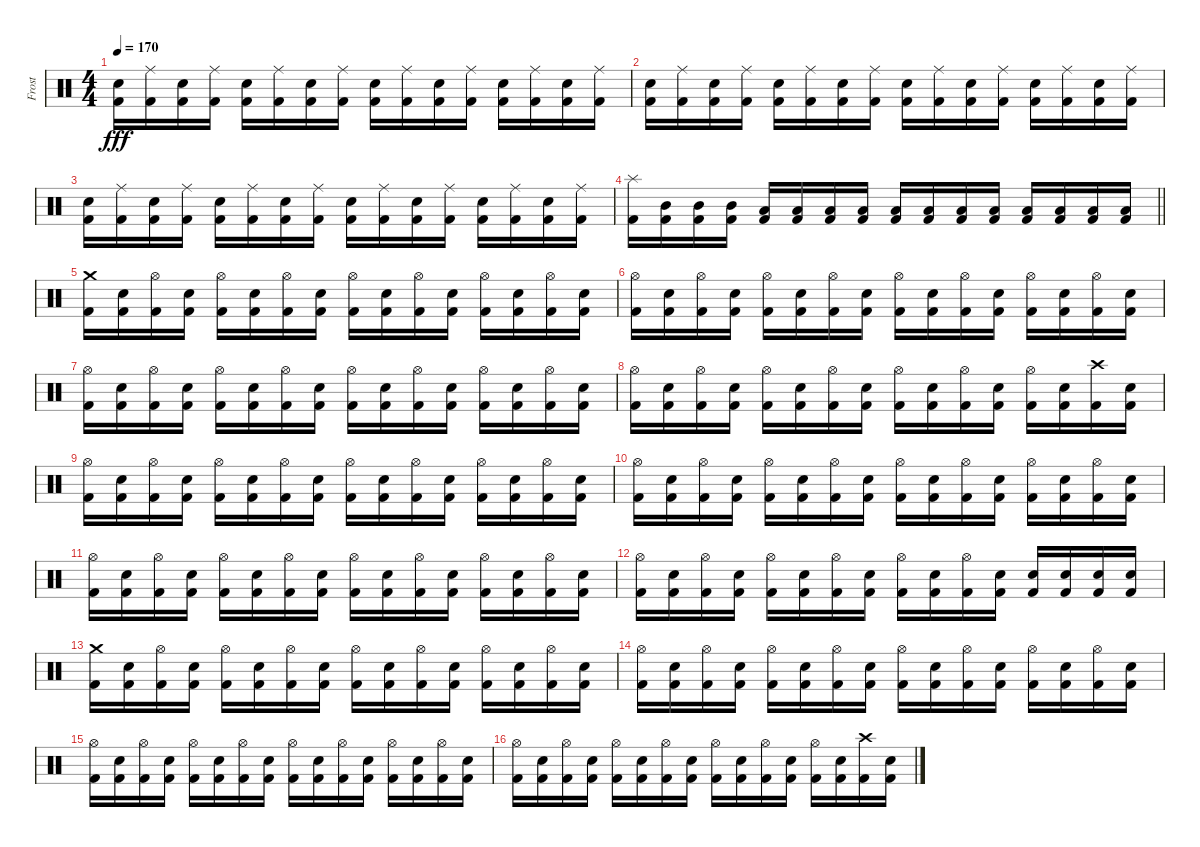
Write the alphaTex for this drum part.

\track ("Frost" "Frost") {instrument percussion}
\staff {score}
\articulation defaults
\ts (4 4)
\tempo 170
\clef neutral
\ks c
("Electric Snare (hit)" "Kick (hit) 2").16{dy fff} ("Ride (middle)" "Kick (hit) 2").16 ("Electric Snare (hit)" "Kick (hit) 2").16 ("Ride (middle)" "Kick (hit) 2").16 ("Electric Snare (hit)" "Kick (hit) 2").16 ("Ride (middle)" "Kick (hit) 2").16 ("Electric Snare (hit)" "Kick (hit) 2").16 ("Ride (middle)" "Kick (hit) 2").16 ("Electric Snare (hit)" "Kick (hit) 2").16 ("Ride (middle)" "Kick (hit) 2").16 ("Electric Snare (hit)" "Kick (hit) 2").16 ("Ride (middle)" "Kick (hit) 2").16 ("Electric Snare (hit)" "Kick (hit) 2").16 ("Ride (middle)" "Kick (hit) 2").16 ("Electric Snare (hit)" "Kick (hit) 2").16 ("Ride (middle)" "Kick (hit) 2").16 |
("Electric Snare (hit)" "Kick (hit) 2").16 ("Ride (middle)" "Kick (hit) 2").16 ("Electric Snare (hit)" "Kick (hit) 2").16 ("Ride (middle)" "Kick (hit) 2").16 ("Electric Snare (hit)" "Kick (hit) 2").16 ("Ride (middle)" "Kick (hit) 2").16 ("Electric Snare (hit)" "Kick (hit) 2").16 ("Ride (middle)" "Kick (hit) 2").16 ("Electric Snare (hit)" "Kick (hit) 2").16 ("Ride (middle)" "Kick (hit) 2").16 ("Electric Snare (hit)" "Kick (hit) 2").16 ("Ride (middle)" "Kick (hit) 2").16 ("Electric Snare (hit)" "Kick (hit) 2").16 ("Ride (middle)" "Kick (hit) 2").16 ("Electric Snare (hit)" "Kick (hit) 2").16 ("Ride (middle)" "Kick (hit) 2").16 |
("Electric Snare (hit)" "Kick (hit) 2").16 ("Ride (middle)" "Kick (hit) 2").16 ("Electric Snare (hit)" "Kick (hit) 2").16 ("Ride (middle)" "Kick (hit) 2").16 ("Electric Snare (hit)" "Kick (hit) 2").16 ("Ride (middle)" "Kick (hit) 2").16 ("Electric Snare (hit)" "Kick (hit) 2").16 ("Ride (middle)" "Kick (hit) 2").16 ("Electric Snare (hit)" "Kick (hit) 2").16 ("Ride (middle)" "Kick (hit) 2").16 ("Electric Snare (hit)" "Kick (hit) 2").16 ("Ride (middle)" "Kick (hit) 2").16 ("Electric Snare (hit)" "Kick (hit) 2").16 ("Ride (middle)" "Kick (hit) 2").16 ("Electric Snare (hit)" "Kick (hit) 2").16 ("Ride (middle)" "Kick (hit) 2").16 |
\barLineRight lightlight
("Splash (hit)" "Kick (hit) 2").16 ("Mid Tom (hit)" "Kick (hit) 2").16 ("Mid Tom (hit)" "Kick (hit) 2").16 ("Mid Tom (hit)" "Kick (hit) 2").16 ("Low Tom (hit)" "Kick (hit) 2").16 ("Low Tom (hit)" "Kick (hit) 2").16 ("Low Tom (hit)" "Kick (hit) 2").16 ("Low Tom (hit)" "Kick (hit) 2").16 ("Low Floor Tom (hit)" "Kick (hit) 2").16 ("Low Floor Tom (hit)" "Kick (hit) 2").16 ("Low Floor Tom (hit)" "Kick (hit) 2").16 ("Low Floor Tom (hit)" "Kick (hit) 2").16 ("Low Floor Tom (hit)" "Kick (hit) 2").16 ("Low Floor Tom (hit)" "Kick (hit) 2").16 ("Low Floor Tom (hit)" "Kick (hit) 2").16 ("Low Floor Tom (hit)" "Kick (hit) 2").16 |
("Crash medium (hit)" "Kick (hit) 2").16 ("Electric Snare (hit)" "Kick (hit) 2").16 ("Hi-Hat (open)" "Kick (hit) 2").16 ("Electric Snare (hit)" "Kick (hit) 2").16 ("Hi-Hat (open)" "Kick (hit) 2").16 ("Electric Snare (hit)" "Kick (hit) 2").16 ("Hi-Hat (open)" "Kick (hit) 2").16 ("Electric Snare (hit)" "Kick (hit) 2").16 ("Hi-Hat (open)" "Kick (hit) 2").16 ("Electric Snare (hit)" "Kick (hit) 2").16 ("Hi-Hat (open)" "Kick (hit) 2").16 ("Electric Snare (hit)" "Kick (hit) 2").16 ("Hi-Hat (open)" "Kick (hit) 2").16 ("Electric Snare (hit)" "Kick (hit) 2").16 ("Hi-Hat (open)" "Kick (hit) 2").16 ("Electric Snare (hit)" "Kick (hit) 2").16 |
("Hi-Hat (open)" "Kick (hit) 2").16 ("Electric Snare (hit)" "Kick (hit) 2").16 ("Hi-Hat (open)" "Kick (hit) 2").16 ("Electric Snare (hit)" "Kick (hit) 2").16 ("Hi-Hat (open)" "Kick (hit) 2").16 ("Electric Snare (hit)" "Kick (hit) 2").16 ("Hi-Hat (open)" "Kick (hit) 2").16 ("Electric Snare (hit)" "Kick (hit) 2").16 ("Hi-Hat (open)" "Kick (hit) 2").16 ("Electric Snare (hit)" "Kick (hit) 2").16 ("Hi-Hat (open)" "Kick (hit) 2").16 ("Electric Snare (hit)" "Kick (hit) 2").16 ("Hi-Hat (open)" "Kick (hit) 2").16 ("Electric Snare (hit)" "Kick (hit) 2").16 ("Hi-Hat (open)" "Kick (hit) 2").16 ("Electric Snare (hit)" "Kick (hit) 2").16 |
("Hi-Hat (open)" "Kick (hit) 2").16 ("Electric Snare (hit)" "Kick (hit) 2").16 ("Hi-Hat (open)" "Kick (hit) 2").16 ("Electric Snare (hit)" "Kick (hit) 2").16 ("Hi-Hat (open)" "Kick (hit) 2").16 ("Electric Snare (hit)" "Kick (hit) 2").16 ("Hi-Hat (open)" "Kick (hit) 2").16 ("Electric Snare (hit)" "Kick (hit) 2").16 ("Hi-Hat (open)" "Kick (hit) 2").16 ("Electric Snare (hit)" "Kick (hit) 2").16 ("Hi-Hat (open)" "Kick (hit) 2").16 ("Electric Snare (hit)" "Kick (hit) 2").16 ("Hi-Hat (open)" "Kick (hit) 2").16 ("Electric Snare (hit)" "Kick (hit) 2").16 ("Hi-Hat (open)" "Kick (hit) 2").16 ("Electric Snare (hit)" "Kick (hit) 2").16 |
("Hi-Hat (open)" "Kick (hit) 2").16 ("Electric Snare (hit)" "Kick (hit) 2").16 ("Hi-Hat (open)" "Kick (hit) 2").16 ("Electric Snare (hit)" "Kick (hit) 2").16 ("Hi-Hat (open)" "Kick (hit) 2").16 ("Electric Snare (hit)" "Kick (hit) 2").16 ("Hi-Hat (open)" "Kick (hit) 2").16 ("Electric Snare (hit)" "Kick (hit) 2").16 ("Hi-Hat (open)" "Kick (hit) 2").16 ("Electric Snare (hit)" "Kick (hit) 2").16 ("Hi-Hat (open)" "Kick (hit) 2").16 ("Electric Snare (hit)" "Kick (hit) 2").16 ("Hi-Hat (open)" "Kick (hit) 2").16 ("Electric Snare (hit)" "Kick (hit) 2").16 ("Crash high (hit)" "Kick (hit) 2").16 ("Electric Snare (hit)" "Kick (hit) 2").16 |
("Hi-Hat (open)" "Kick (hit) 2").16 ("Electric Snare (hit)" "Kick (hit) 2").16 ("Hi-Hat (open)" "Kick (hit) 2").16 ("Electric Snare (hit)" "Kick (hit) 2").16 ("Hi-Hat (open)" "Kick (hit) 2").16 ("Electric Snare (hit)" "Kick (hit) 2").16 ("Hi-Hat (open)" "Kick (hit) 2").16 ("Electric Snare (hit)" "Kick (hit) 2").16 ("Hi-Hat (open)" "Kick (hit) 2").16 ("Electric Snare (hit)" "Kick (hit) 2").16 ("Hi-Hat (open)" "Kick (hit) 2").16 ("Electric Snare (hit)" "Kick (hit) 2").16 ("Hi-Hat (open)" "Kick (hit) 2").16 ("Electric Snare (hit)" "Kick (hit) 2").16 ("Hi-Hat (open)" "Kick (hit) 2").16 ("Electric Snare (hit)" "Kick (hit) 2").16 |
("Hi-Hat (open)" "Kick (hit) 2").16 ("Electric Snare (hit)" "Kick (hit) 2").16 ("Hi-Hat (open)" "Kick (hit) 2").16 ("Electric Snare (hit)" "Kick (hit) 2").16 ("Hi-Hat (open)" "Kick (hit) 2").16 ("Electric Snare (hit)" "Kick (hit) 2").16 ("Hi-Hat (open)" "Kick (hit) 2").16 ("Electric Snare (hit)" "Kick (hit) 2").16 ("Hi-Hat (open)" "Kick (hit) 2").16 ("Electric Snare (hit)" "Kick (hit) 2").16 ("Hi-Hat (open)" "Kick (hit) 2").16 ("Electric Snare (hit)" "Kick (hit) 2").16 ("Hi-Hat (open)" "Kick (hit) 2").16 ("Electric Snare (hit)" "Kick (hit) 2").16 ("Hi-Hat (open)" "Kick (hit) 2").16 ("Electric Snare (hit)" "Kick (hit) 2").16 |
("Hi-Hat (open)" "Kick (hit) 2").16 ("Electric Snare (hit)" "Kick (hit) 2").16 ("Hi-Hat (open)" "Kick (hit) 2").16 ("Electric Snare (hit)" "Kick (hit) 2").16 ("Hi-Hat (open)" "Kick (hit) 2").16 ("Electric Snare (hit)" "Kick (hit) 2").16 ("Hi-Hat (open)" "Kick (hit) 2").16 ("Electric Snare (hit)" "Kick (hit) 2").16 ("Hi-Hat (open)" "Kick (hit) 2").16 ("Electric Snare (hit)" "Kick (hit) 2").16 ("Hi-Hat (open)" "Kick (hit) 2").16 ("Electric Snare (hit)" "Kick (hit) 2").16 ("Hi-Hat (open)" "Kick (hit) 2").16 ("Electric Snare (hit)" "Kick (hit) 2").16 ("Hi-Hat (open)" "Kick (hit) 2").16 ("Electric Snare (hit)" "Kick (hit) 2").16 |
("Hi-Hat (open)" "Kick (hit) 2").16 ("Electric Snare (hit)" "Kick (hit) 2").16 ("Hi-Hat (open)" "Kick (hit) 2").16 ("Electric Snare (hit)" "Kick (hit) 2").16 ("Hi-Hat (open)" "Kick (hit) 2").16 ("Electric Snare (hit)" "Kick (hit) 2").16 ("Hi-Hat (open)" "Kick (hit) 2").16 ("Electric Snare (hit)" "Kick (hit) 2").16 ("Hi-Hat (open)" "Kick (hit) 2").16 ("Electric Snare (hit)" "Kick (hit) 2").16 ("Hi-Hat (open)" "Kick (hit) 2").16 ("Electric Snare (hit)" "Kick (hit) 2").16 ("Electric Snare (hit)" "Kick (hit) 2").16 ("Electric Snare (hit)" "Kick (hit) 2").16 ("Electric Snare (hit)" "Kick (hit) 2").16 ("Electric Snare (hit)" "Kick (hit) 2").16 |
("Crash medium (hit)" "Kick (hit) 2").16 ("Electric Snare (hit)" "Kick (hit) 2").16 ("Hi-Hat (open)" "Kick (hit) 2").16 ("Electric Snare (hit)" "Kick (hit) 2").16 ("Hi-Hat (open)" "Kick (hit) 2").16 ("Electric Snare (hit)" "Kick (hit) 2").16 ("Hi-Hat (open)" "Kick (hit) 2").16 ("Electric Snare (hit)" "Kick (hit) 2").16 ("Hi-Hat (open)" "Kick (hit) 2").16 ("Electric Snare (hit)" "Kick (hit) 2").16 ("Hi-Hat (open)" "Kick (hit) 2").16 ("Electric Snare (hit)" "Kick (hit) 2").16 ("Hi-Hat (open)" "Kick (hit) 2").16 ("Electric Snare (hit)" "Kick (hit) 2").16 ("Hi-Hat (open)" "Kick (hit) 2").16 ("Electric Snare (hit)" "Kick (hit) 2").16 |
("Hi-Hat (open)" "Kick (hit) 2").16 ("Electric Snare (hit)" "Kick (hit) 2").16 ("Hi-Hat (open)" "Kick (hit) 2").16 ("Electric Snare (hit)" "Kick (hit) 2").16 ("Hi-Hat (open)" "Kick (hit) 2").16 ("Electric Snare (hit)" "Kick (hit) 2").16 ("Hi-Hat (open)" "Kick (hit) 2").16 ("Electric Snare (hit)" "Kick (hit) 2").16 ("Hi-Hat (open)" "Kick (hit) 2").16 ("Electric Snare (hit)" "Kick (hit) 2").16 ("Hi-Hat (open)" "Kick (hit) 2").16 ("Electric Snare (hit)" "Kick (hit) 2").16 ("Hi-Hat (open)" "Kick (hit) 2").16 ("Electric Snare (hit)" "Kick (hit) 2").16 ("Hi-Hat (open)" "Kick (hit) 2").16 ("Electric Snare (hit)" "Kick (hit) 2").16 |
("Hi-Hat (open)" "Kick (hit) 2").16 ("Electric Snare (hit)" "Kick (hit) 2").16 ("Hi-Hat (open)" "Kick (hit) 2").16 ("Electric Snare (hit)" "Kick (hit) 2").16 ("Hi-Hat (open)" "Kick (hit) 2").16 ("Electric Snare (hit)" "Kick (hit) 2").16 ("Hi-Hat (open)" "Kick (hit) 2").16 ("Electric Snare (hit)" "Kick (hit) 2").16 ("Hi-Hat (open)" "Kick (hit) 2").16 ("Electric Snare (hit)" "Kick (hit) 2").16 ("Hi-Hat (open)" "Kick (hit) 2").16 ("Electric Snare (hit)" "Kick (hit) 2").16 ("Hi-Hat (open)" "Kick (hit) 2").16 ("Electric Snare (hit)" "Kick (hit) 2").16 ("Hi-Hat (open)" "Kick (hit) 2").16 ("Electric Snare (hit)" "Kick (hit) 2").16 |
("Hi-Hat (open)" "Kick (hit) 2").16 ("Electric Snare (hit)" "Kick (hit) 2").16 ("Hi-Hat (open)" "Kick (hit) 2").16 ("Electric Snare (hit)" "Kick (hit) 2").16 ("Hi-Hat (open)" "Kick (hit) 2").16 ("Electric Snare (hit)" "Kick (hit) 2").16 ("Hi-Hat (open)" "Kick (hit) 2").16 ("Electric Snare (hit)" "Kick (hit) 2").16 ("Hi-Hat (open)" "Kick (hit) 2").16 ("Electric Snare (hit)" "Kick (hit) 2").16 ("Hi-Hat (open)" "Kick (hit) 2").16 ("Electric Snare (hit)" "Kick (hit) 2").16 ("Hi-Hat (open)" "Kick (hit) 2").16 ("Electric Snare (hit)" "Kick (hit) 2").16 ("Crash high (hit)" "Kick (hit) 2").16 ("Electric Snare (hit)" "Kick (hit) 2").16
